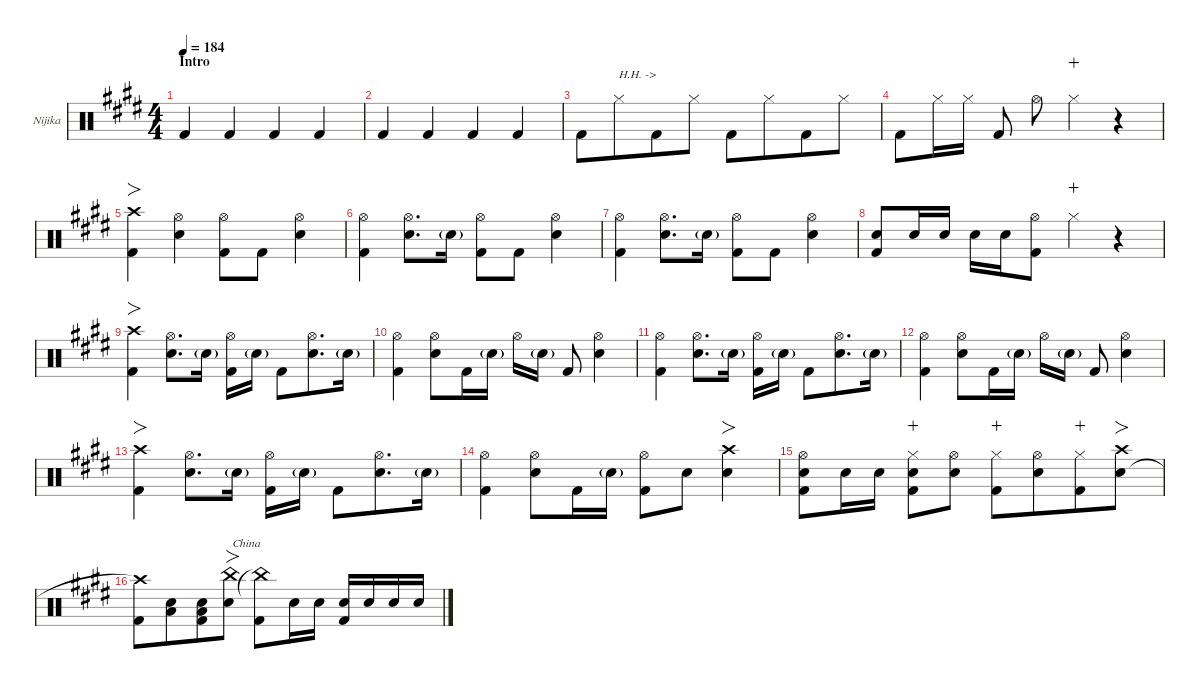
\defaultSystemsLayout 4
\hideDynamics
\bracketExtendMode nobrackets
\firstSystemTrackNameOrientation horizontal
\track ("Nijika" "Nijika") {defaultSystemsLayout 4 instrument percussion}
\staff {score}
\articulation defaults
\ts (4 4)
\beaming (8 4 4)
\section ("" "Intro")
\tempo 184
\clef neutral
\ks e "Kick (hit) 2"{acc forcenatural}.4{dy f beam Up} "Kick (hit) 2"{acc forcenatural}.4{beam Up} "Kick (hit) 2"{acc forcenatural}.4{beam Up} "Kick (hit) 2"{acc forcenatural}.4{beam Up}
|
"Kick (hit) 2"{acc forcenatural}.4{beam Up} "Kick (hit) 2"{acc forcenatural}.4{beam Up} "Kick (hit) 2"{acc forcenatural}.4{beam Up} "Kick (hit) 2"{acc forcenatural}.4{beam Up} |
"Kick (hit) 2"{acc forcenatural}.8{beam Down} "Hi-Hat (closed)"{acc forcenatural}.8{txt "H.H. ->" beam Down} "Kick (hit) 2"{acc forcenatural}.8{beam Down} "Hi-Hat (closed)"{acc forcenatural}.8{beam Down} "Kick (hit) 2"{acc forcenatural}.8{beam Down} "Hi-Hat (closed)"{acc forcenatural}.8{beam Down} "Kick (hit) 2"{acc forcenatural}.8{beam Down} "Hi-Hat (closed)"{acc forcenatural}.8{beam Down} |
"Kick (hit) 2"{acc forcenatural}.8{beam Down} "Hi-Hat (closed)"{acc forcenatural}.16{beam Down} "Hi-Hat (closed)"{acc forcenatural}.16{beam Down beam split} "Kick (hit) 2"{acc forcenatural}.8{beam Up beam split} "Hi-Hat (open)"{acc forcenatural}.8{beam Down} "Hi-Hat (closed)"{acc forcenatural}.4{dy mp wahc beam Down} r.4{beam Down} |
("Crash high (hit)"{acc forcenatural} "Kick (hit) 2"{acc forcenatural}).4{fo dy f beam Down} ("Hi-Hat (open)"{acc forcenatural} "Snare (hit) 2"{acc forcenatural}).4{beam Down} ("Hi-Hat (open)"{acc forcenatural} "Kick (hit) 2"{acc forcenatural}).8{beam Down} "Kick (hit) 2"{acc forcenatural}.8{beam Down} ("Hi-Hat (open)"{acc forcenatural} "Snare (hit) 2"{acc forcenatural}).4{beam Down} |
("Hi-Hat (open)"{acc forcenatural} "Kick (hit) 2"{acc forcenatural}).4{beam Down} ("Hi-Hat (open)"{acc forcenatural} "Snare (hit) 2"{acc forcenatural}).8{d beam Down} "Snare (hit) 2"{g acc forcenatural}.16{dy mf beam Down} ("Hi-Hat (open)"{acc forcenatural} "Kick (hit) 2"{acc forcenatural}).8{dy f beam Down} "Kick (hit) 2"{acc forcenatural}.8{beam Down} ("Hi-Hat (open)"{acc forcenatural} "Snare (hit) 2"{acc forcenatural}).4{beam Down} |
("Hi-Hat (open)"{acc forcenatural} "Kick (hit) 2"{acc forcenatural}).4{beam Down} ("Hi-Hat (open)"{acc forcenatural} "Snare (hit) 2"{acc forcenatural}).8{d beam Down} "Snare (hit) 2"{g acc forcenatural}.16{dy mf beam Down} ("Hi-Hat (open)"{acc forcenatural} "Kick (hit) 2"{acc forcenatural}).8{dy f beam Down} "Kick (hit) 2"{acc forcenatural}.8{beam Down} ("Hi-Hat (open)"{acc forcenatural} "Snare (hit) 2"{acc forcenatural}).4{beam Down} |
("Snare (hit) 2"{acc forcenatural} "Kick (hit) 2"{acc forcenatural}).8{beam Up} "Snare (hit) 2"{acc forcenatural}.16{beam Up} "Snare (hit) 2"{acc forcenatural}.16{dy mf beam Up beam split} "Snare (hit) 2"{acc forcenatural}.16{dy f beam Down} "Snare (hit) 2"{acc forcenatural}.16{dy mf beam Down} ("Hi-Hat (open)"{acc forcenatural} "Kick (hit) 2"{acc forcenatural}).8{dy f beam Down} "Hi-Hat (closed)"{acc forcenatural}.4{dy mp wahc beam Down} r.4{beam Down} |
("Crash high (hit)"{acc forcenatural} "Kick (hit) 2"{acc forcenatural}).4{fo dy f beam Down} ("Hi-Hat (open)"{acc forcenatural} "Snare (hit) 2"{acc forcenatural}).8{d beam Down} "Snare (hit) 2"{g acc forcenatural}.16{dy mf beam Down} ("Hi-Hat (open)"{acc forcenatural} "Kick (hit) 2"{acc forcenatural}).16{dy f beam Down} "Snare (hit) 2"{g acc forcenatural}.16{dy mf beam Down beam split} "Kick (hit) 2"{acc forcenatural}.8{dy f beam Down} ("Hi-Hat (open)"{acc forcenatural} "Snare (hit) 2"{acc forcenatural}).8{d beam Down} "Snare (hit) 2"{g acc forcenatural}.16{dy mf beam Down} |
("Hi-Hat (open)"{acc forcenatural} "Kick (hit) 2"{acc forcenatural}).4{dy f beam Down} ("Hi-Hat (open)"{acc forcenatural} "Snare (hit) 2"{acc forcenatural}).8{beam Down} "Kick (hit) 2"{acc forcenatural}.16{beam Down} "Snare (hit) 2"{g acc forcenatural}.16{dy mf beam Down} "Hi-Hat (open)"{acc forcenatural}.16{dy f beam Down} "Snare (hit) 2"{g acc forcenatural}.16{dy mf beam Down beam split} "Kick (hit) 2"{acc forcenatural}.8{dy f beam Up} ("Hi-Hat (open)"{acc forcenatural} "Snare (hit) 2"{acc forcenatural}).4{beam Down} |
("Hi-Hat (open)"{acc forcenatural} "Kick (hit) 2"{acc forcenatural}).4{beam Down} ("Hi-Hat (open)"{acc forcenatural} "Snare (hit) 2"{acc forcenatural}).8{d beam Down} "Snare (hit) 2"{g acc forcenatural}.16{dy mf beam Down} ("Hi-Hat (open)"{acc forcenatural} "Kick (hit) 2"{acc forcenatural}).16{dy f beam Down} "Snare (hit) 2"{g acc forcenatural}.16{dy mf beam Down beam split} "Kick (hit) 2"{acc forcenatural}.8{dy f beam Down} ("Hi-Hat (open)"{acc forcenatural} "Snare (hit) 2"{acc forcenatural}).8{d beam Down} "Snare (hit) 2"{g acc forcenatural}.16{dy mf beam Down} |
("Hi-Hat (open)"{acc forcenatural} "Kick (hit) 2"{acc forcenatural}).4{dy f beam Down} ("Hi-Hat (open)"{acc forcenatural} "Snare (hit) 2"{acc forcenatural}).8{beam Down} "Kick (hit) 2"{acc forcenatural}.16{beam Down} "Snare (hit) 2"{g acc forcenatural}.16{dy mf beam Down} "Hi-Hat (open)"{acc forcenatural}.16{dy f beam Down} "Snare (hit) 2"{g acc forcenatural}.16{dy mf beam Down beam split} "Kick (hit) 2"{acc forcenatural}.8{dy f beam Up} ("Hi-Hat (open)"{acc forcenatural} "Snare (hit) 2"{acc forcenatural}).4{beam Down} |
("Crash high (hit)"{acc forcenatural} "Kick (hit) 2"{acc forcenatural}).4{fo beam Down} ("Hi-Hat (open)"{acc forcenatural} "Snare (hit) 2"{acc forcenatural}).8{d beam Down} "Snare (hit) 2"{g acc forcenatural}.16{dy mf beam Down} ("Hi-Hat (open)"{acc forcenatural} "Kick (hit) 2"{acc forcenatural}).16{dy f beam Down} "Snare (hit) 2"{g acc forcenatural}.16{dy mf beam Down beam split} "Kick (hit) 2"{acc forcenatural}.8{dy f beam Down} ("Hi-Hat (open)"{acc forcenatural} "Snare (hit) 2"{acc forcenatural}).8{d beam Down} "Snare (hit) 2"{g acc forcenatural}.16{dy mf beam Down} |
("Hi-Hat (open)"{acc forcenatural} "Kick (hit) 2"{acc forcenatural}).4{dy f beam Down} ("Hi-Hat (open)"{acc forcenatural} "Snare (hit) 2"{acc forcenatural}).8{beam Down} "Kick (hit) 2"{acc forcenatural}.16{beam Down} "Snare (hit) 2"{g acc forcenatural}.16{dy mf beam Down} ("Hi-Hat (open)"{acc forcenatural} "Kick (hit) 2"{acc forcenatural}).8{dy f beam Down} "Snare (hit) 2"{acc forcenatural}.8{beam Down} ("Snare (hit) 2"{acc forcenatural} "Crash high (hit)"{acc forcenatural}).4{fo beam Down} |
("Snare (hit) 2"{acc forcenatural} "Hi-Hat (open)"{acc forcenatural} "Kick (hit) 2"{acc forcenatural}).8{beam Down} "Snare (hit) 2"{acc forcenatural}.16{beam Down} "Snare (hit) 2"{acc forcenatural}.16{dy mf beam Down beam split} ("Hi-Hat (closed)"{acc forcenatural} "Snare (hit) 2"{acc forcenatural} "Kick (hit) 2"{acc forcenatural}).8{dy f wahc beam Down} ("Snare (hit) 2"{acc forcenatural} "Hi-Hat (open)"{acc forcenatural}).8{beam Down} ("Hi-Hat (closed)"{acc forcenatural} "Kick (hit) 2"{acc forcenatural}).8{dy mp wahc beam Down} ("Snare (hit) 2"{acc forcenatural} "Hi-Hat (open)"{acc forcenatural}).8{dy f beam Down} ("Hi-Hat (closed)"{acc forcenatural} "Kick (hit) 2"{acc forcenatural}).8{dy mp wahc beam Down} ("Snare (hit) 2"{acc forcenatural} "Crash high (hit)"{acc forcenatural}).8{fo dy f beam Down} |
("Crash high (hit)"{t acc forcenatural} "Kick (hit) 2"{acc forcenatural}).8{beam Down} ("Snare (hit) 2"{acc forcenatural} "Low Tom (hit)"{acc forcenatural}).8{beam Down} ("Snare (hit) 2"{acc forcenatural} "Low Tom (hit)"{acc forcenatural} "Kick (hit) 2"{acc forcenatural}).8{beam Down} ("Snare (hit) 2"{acc forcenatural} "China (hit)"{acc forcenatural}).8{fo txt "China" beam Down} ("China (hit)"{t acc forcenatural} "Kick (hit) 2"{acc forcenatural}).8{beam Down} "Snare (hit) 2"{acc forcenatural}.16{beam Down} "Snare (hit) 2"{acc forcenatural}.16{dy mf beam Down beam split} ("Snare (hit) 2"{acc forcenatural} "Kick (hit) 2"{acc forcenatural}).16{dy f beam Up} "Snare (hit) 2"{acc forcenatural}.16{dy mf beam Up} "Snare (hit) 2"{acc forcenatural}.16{dy f beam Up} "Snare (hit) 2"{acc forcenatural}.16{dy mf beam Up}
